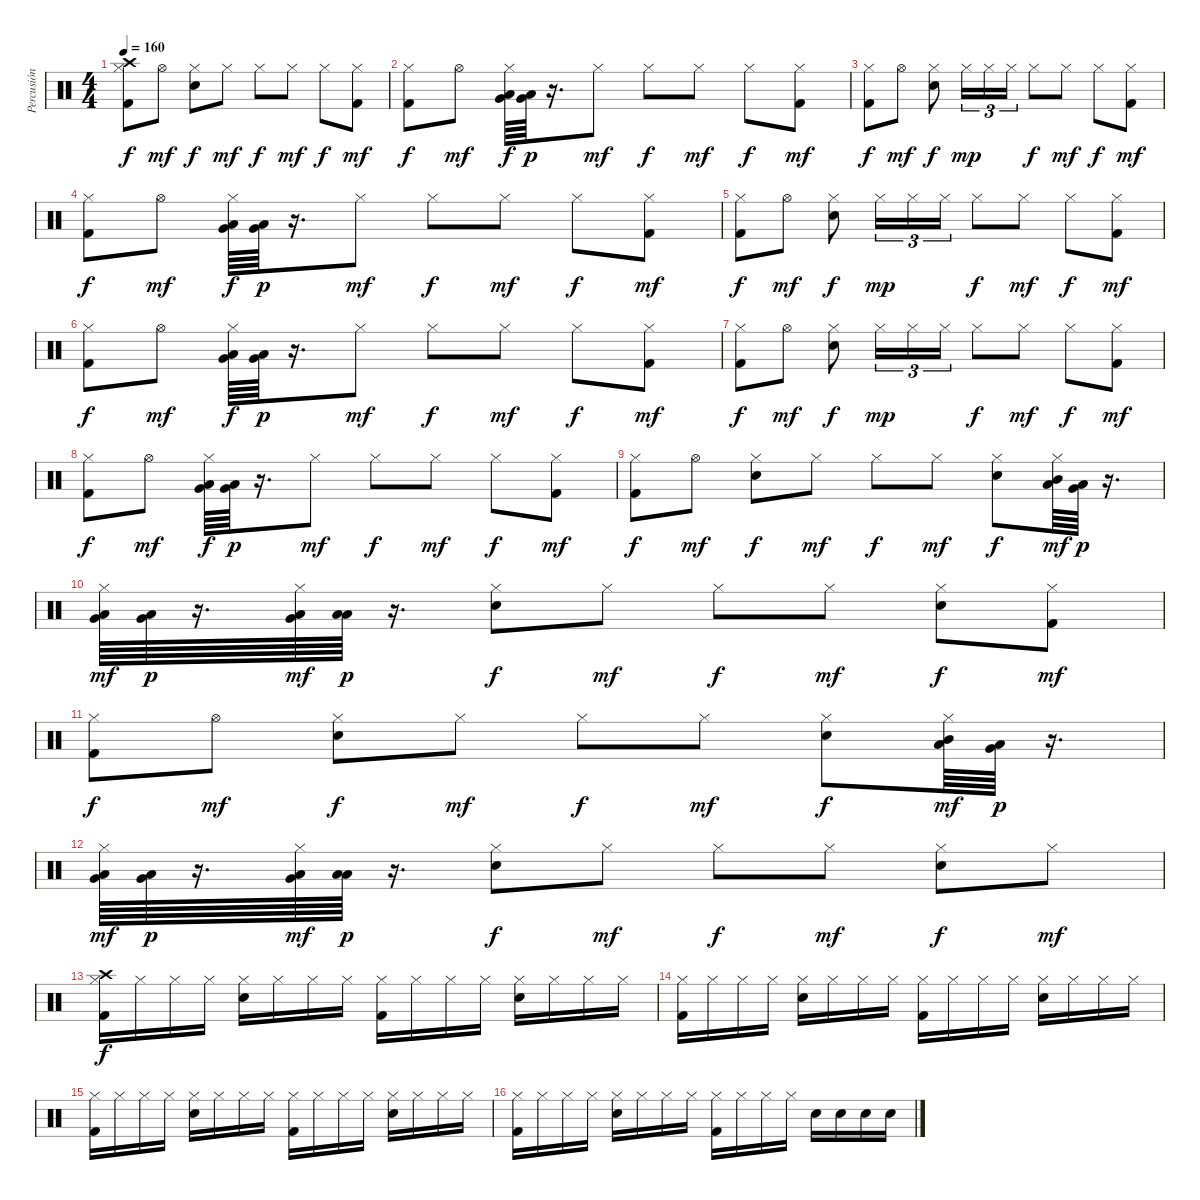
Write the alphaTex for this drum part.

\track ("Percusión" "Percusión") {instrument percussion}
\staff {score}
\articulation defaults
\ts (4 4)
\tempo 160
\clef neutral
\ks c
("Crash high (hit)" "Hi-Hat (closed)" "Kick (hit) 2").8{dy f} "Hi-Hat (open)".8{dy mf} ("Hi-Hat (closed)" "Electric Snare (hit)").8{dy f} "Hi-Hat (closed)".8{dy mf} "Hi-Hat (closed)".8{dy f} "Hi-Hat (closed)".8{dy mf} "Hi-Hat (closed)".8{dy f} ("Hi-Hat (closed)" "Kick (hit) 2").8{dy mf} |
("Hi-Hat (closed)" "Kick (hit) 2").8{dy f} "Hi-Hat (open)".8{dy mf} ("Hi-Hat (closed)" "Low Tom (hit)" "Very Low Tom (hit)").64{dy f} ("Very Low Tom (hit)" "Low Floor Tom (hit)").64{dy p} r.16{d} "Hi-Hat (closed)".8{dy mf} "Hi-Hat (closed)".8{dy f} "Hi-Hat (closed)".8{dy mf} "Hi-Hat (closed)".8{dy f} ("Hi-Hat (closed)" "Kick (hit) 2").8{dy mf} |
("Hi-Hat (closed)" "Kick (hit) 2").8{dy f} "Hi-Hat (open)".8{dy mf} ("Hi-Hat (closed)" "Electric Snare (hit)").8{dy f} "Hi-Hat (closed)".16{tu (3 2) dy mp} "Hi-Hat (closed)".16{tu (3 2)} "Hi-Hat (closed)".16{tu (3 2)} "Hi-Hat (closed)".8{dy f} "Hi-Hat (closed)".8{dy mf} "Hi-Hat (closed)".8{dy f} ("Hi-Hat (closed)" "Kick (hit) 2").8{dy mf} |
("Hi-Hat (closed)" "Kick (hit) 2").8{dy f} "Hi-Hat (open)".8{dy mf} ("Hi-Hat (closed)" "Low Tom (hit)" "Very Low Tom (hit)").64{dy f} ("Very Low Tom (hit)" "Low Floor Tom (hit)").64{dy p} r.16{d} "Hi-Hat (closed)".8{dy mf} "Hi-Hat (closed)".8{dy f} "Hi-Hat (closed)".8{dy mf} "Hi-Hat (closed)".8{dy f} ("Hi-Hat (closed)" "Kick (hit) 2").8{dy mf} |
("Hi-Hat (closed)" "Kick (hit) 2").8{dy f} "Hi-Hat (open)".8{dy mf} ("Hi-Hat (closed)" "Electric Snare (hit)").8{dy f} "Hi-Hat (closed)".16{tu (3 2) dy mp} "Hi-Hat (closed)".16{tu (3 2)} "Hi-Hat (closed)".16{tu (3 2)} "Hi-Hat (closed)".8{dy f} "Hi-Hat (closed)".8{dy mf} "Hi-Hat (closed)".8{dy f} ("Hi-Hat (closed)" "Kick (hit) 2").8{dy mf} |
("Hi-Hat (closed)" "Kick (hit) 2").8{dy f} "Hi-Hat (open)".8{dy mf} ("Hi-Hat (closed)" "Low Tom (hit)" "Very Low Tom (hit)").64{dy f} ("Very Low Tom (hit)" "Low Floor Tom (hit)").64{dy p} r.16{d} "Hi-Hat (closed)".8{dy mf} "Hi-Hat (closed)".8{dy f} "Hi-Hat (closed)".8{dy mf} "Hi-Hat (closed)".8{dy f} ("Hi-Hat (closed)" "Kick (hit) 2").8{dy mf} |
("Hi-Hat (closed)" "Kick (hit) 2").8{dy f} "Hi-Hat (open)".8{dy mf} ("Hi-Hat (closed)" "Electric Snare (hit)").8{dy f} "Hi-Hat (closed)".16{tu (3 2) dy mp} "Hi-Hat (closed)".16{tu (3 2)} "Hi-Hat (closed)".16{tu (3 2)} "Hi-Hat (closed)".8{dy f} "Hi-Hat (closed)".8{dy mf} "Hi-Hat (closed)".8{dy f} ("Hi-Hat (closed)" "Kick (hit) 2").8{dy mf} |
("Hi-Hat (closed)" "Kick (hit) 2").8{dy f} "Hi-Hat (open)".8{dy mf} ("Hi-Hat (closed)" "Low Tom (hit)" "Very Low Tom (hit)").64{dy f} ("Very Low Tom (hit)" "Low Floor Tom (hit)").64{dy p} r.16{d} "Hi-Hat (closed)".8{dy mf} "Hi-Hat (closed)".8{dy f} "Hi-Hat (closed)".8{dy mf} "Hi-Hat (closed)".8{dy f} ("Hi-Hat (closed)" "Kick (hit) 2").8{dy mf} |
("Hi-Hat (closed)" "Kick (hit) 2").8{dy f} "Hi-Hat (open)".8{dy mf} ("Hi-Hat (closed)" "Electric Snare (hit)").8{dy f} "Hi-Hat (closed)".8{dy mf} "Hi-Hat (closed)".8{dy f} "Hi-Hat (closed)".8{dy mf} ("Hi-Hat (closed)" "Electric Snare (hit)").8{dy f} ("Hi-Hat (closed)" "Mid Tom (hit)" "Low Tom (hit)").64{dy mf} ("Low Tom (hit)" "Very Low Tom (hit)").64{dy p} r.16{d} |
("Hi-Hat (closed)" "Low Tom (hit)" "Very Low Tom (hit)").64{dy mf} ("Very Low Tom (hit)" "Low Floor Tom (hit)").64{dy p} r.16{d} ("Hi-Hat (closed)" "Very Low Tom (hit)" "Low Floor Tom (hit)").64{dy mf} ("Low Floor Tom (hit)" "Low Floor Tom (hit)").64{dy p} r.16{d} ("Hi-Hat (closed)" "Electric Snare (hit)").8{dy f} "Hi-Hat (closed)".8{dy mf} "Hi-Hat (closed)".8{dy f} "Hi-Hat (closed)".8{dy mf} ("Hi-Hat (closed)" "Electric Snare (hit)").8{dy f} ("Hi-Hat (closed)" "Kick (hit) 2").8{dy mf} |
("Hi-Hat (closed)" "Kick (hit) 2").8{dy f} "Hi-Hat (open)".8{dy mf} ("Hi-Hat (closed)" "Electric Snare (hit)").8{dy f} "Hi-Hat (closed)".8{dy mf} "Hi-Hat (closed)".8{dy f} "Hi-Hat (closed)".8{dy mf} ("Hi-Hat (closed)" "Electric Snare (hit)").8{dy f} ("Hi-Hat (closed)" "Mid Tom (hit)" "Low Tom (hit)").64{dy mf} ("Low Tom (hit)" "Very Low Tom (hit)").64{dy p} r.16{d} |
("Hi-Hat (closed)" "Low Tom (hit)" "Very Low Tom (hit)").64{dy mf} ("Very Low Tom (hit)" "Low Floor Tom (hit)").64{dy p} r.16{d} ("Hi-Hat (closed)" "Very Low Tom (hit)" "Low Floor Tom (hit)").64{dy mf} ("Low Floor Tom (hit)" "Low Floor Tom (hit)").64{dy p} r.16{d} ("Hi-Hat (closed)" "Electric Snare (hit)").8{dy f} "Hi-Hat (closed)".8{dy mf} "Hi-Hat (closed)".8{dy f} "Hi-Hat (closed)".8{dy mf} ("Hi-Hat (closed)" "Electric Snare (hit)").8{dy f} "Hi-Hat (closed)".8{dy mf} |
("Crash high (hit)" "Hi-Hat (closed)" "Kick (hit) 2").16{dy f} "Hi-Hat (closed)".16 "Hi-Hat (closed)".16 "Hi-Hat (closed)".16 ("Hi-Hat (closed)" "Electric Snare (hit)").16 "Hi-Hat (closed)".16 "Hi-Hat (closed)".16 "Hi-Hat (closed)".16 ("Hi-Hat (closed)" "Kick (hit) 2").16 "Hi-Hat (closed)".16 "Hi-Hat (closed)".16 "Hi-Hat (closed)".16 ("Hi-Hat (closed)" "Electric Snare (hit)").16 "Hi-Hat (closed)".16 "Hi-Hat (closed)".16 "Hi-Hat (closed)".16 |
("Hi-Hat (closed)" "Kick (hit) 2").16 "Hi-Hat (closed)".16 "Hi-Hat (closed)".16 "Hi-Hat (closed)".16 ("Hi-Hat (closed)" "Electric Snare (hit)").16 "Hi-Hat (closed)".16 "Hi-Hat (closed)".16 "Hi-Hat (closed)".16 ("Hi-Hat (closed)" "Kick (hit) 2").16 "Hi-Hat (closed)".16 "Hi-Hat (closed)".16 "Hi-Hat (closed)".16 ("Hi-Hat (closed)" "Electric Snare (hit)").16 "Hi-Hat (closed)".16 "Hi-Hat (closed)".16 "Hi-Hat (closed)".16 |
("Hi-Hat (closed)" "Kick (hit) 2").16 "Hi-Hat (closed)".16 "Hi-Hat (closed)".16 "Hi-Hat (closed)".16 ("Hi-Hat (closed)" "Electric Snare (hit)").16 "Hi-Hat (closed)".16 "Hi-Hat (closed)".16 "Hi-Hat (closed)".16 ("Hi-Hat (closed)" "Kick (hit) 2").16 "Hi-Hat (closed)".16 "Hi-Hat (closed)".16 "Hi-Hat (closed)".16 ("Hi-Hat (closed)" "Electric Snare (hit)").16 "Hi-Hat (closed)".16 "Hi-Hat (closed)".16 "Hi-Hat (closed)".16 |
("Hi-Hat (closed)" "Kick (hit) 2").16 "Hi-Hat (closed)".16 "Hi-Hat (closed)".16 "Hi-Hat (closed)".16 ("Hi-Hat (closed)" "Electric Snare (hit)").16 "Hi-Hat (closed)".16 "Hi-Hat (closed)".16 "Hi-Hat (closed)".16 ("Hi-Hat (closed)" "Kick (hit) 2").16 "Hi-Hat (closed)".16 "Hi-Hat (closed)".16 "Hi-Hat (closed)".16 "Electric Snare (hit)".16 "Electric Snare (hit)".16 "Electric Snare (hit)".16 "Electric Snare (hit)".16
